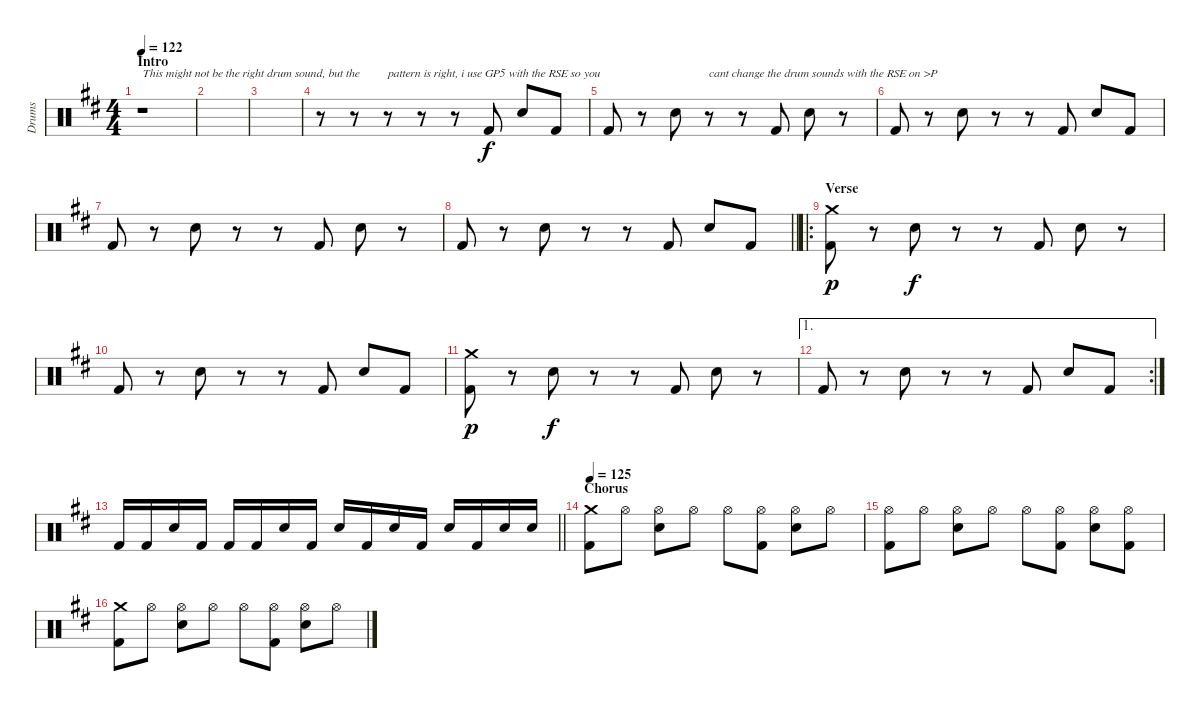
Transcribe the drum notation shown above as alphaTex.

\track ("Drums" "Drums") {instrument percussion}
\staff {score}
\articulation defaults
\ts (4 4)
\section ("" "Intro")
\tempo 122
\clef neutral
\ks d
r.1{txt "This might not be the right drum sound, but the" dy f} |
|
|
r.8 r.8 r.8{txt "pattern is right, i use GP5 with the RSE so you "} r.8 r.8 "Kick (hit) 2".8 "Snare (hit) 2".8 "Kick (hit) 2".8 |
"Kick (hit) 2".8 r.8 "Snare (hit) 2".8 r.8{txt "cant change the drum sounds with the RSE on >P"} r.8 "Kick (hit) 2".8 "Snare (hit) 2".8 r.8 |
"Kick (hit) 2".8 r.8 "Snare (hit) 2".8 r.8 r.8 "Kick (hit) 2".8 "Snare (hit) 2".8 "Kick (hit) 2".8 |
"Kick (hit) 2".8 r.8 "Snare (hit) 2".8 r.8 r.8 "Kick (hit) 2".8 "Snare (hit) 2".8 r.8 |
\barLineRight lightlight "Kick (hit) 2".8
r.8 "Snare (hit) 2".8 r.8 r.8 "Kick (hit) 2".8 "Snare (hit) 2".8 "Kick (hit) 2".8 |
\ro
\section ("" "Verse")
("Crash medium (hit)" "Kick (hit) 2").8{dy p} r.8 "Snare (hit) 2".8{dy f} r.8 r.8 "Kick (hit) 2".8 "Snare (hit) 2".8 r.8 |
"Kick (hit) 2".8 r.8 "Snare (hit) 2".8 r.8 r.8 "Kick (hit) 2".8 "Snare (hit) 2".8 "Kick (hit) 2".8 |
("Crash medium (hit)" "Kick (hit) 2").8{dy p} r.8 "Snare (hit) 2".8{dy f} r.8 r.8 "Kick (hit) 2".8 "Snare (hit) 2".8 r.8 |
\ae 1
\rc 2 "Kick (hit) 2".8
r.8 "Snare (hit) 2".8 r.8 r.8 "Kick (hit) 2".8 "Snare (hit) 2".8 "Kick (hit) 2".8 |
\barLineRight lightlight "Kick (hit) 2".16 "Kick (hit) 2".16 "Snare (hit) 2".16 "Kick (hit) 2".16 "Kick (hit) 2".16 "Kick (hit) 2".16 "Snare (hit) 2".16 "Kick (hit) 2".16 "Snare (hit) 2".16 "Kick (hit) 2".16 "Snare (hit) 2".16 "Kick (hit) 2".16 "Snare (hit) 2".16 "Kick (hit) 2".16 "Snare (hit) 2".16 "Snare (hit) 2".16
|
\section ("" "Chorus")
\tempo 125
("Crash medium (hit)" "Kick (hit) 2").8 "Hi-Hat (open)".8 ("Hi-Hat (open)" "Snare (hit) 2").8 "Hi-Hat (open)".8 "Hi-Hat (open)".8 ("Hi-Hat (open)" "Kick (hit) 2").8 ("Hi-Hat (open)" "Snare (hit) 2").8 "Hi-Hat (open)".8 |
("Hi-Hat (open)" "Kick (hit) 2").8 "Hi-Hat (open)".8 ("Hi-Hat (open)" "Snare (hit) 2").8 "Hi-Hat (open)".8 "Hi-Hat (open)".8 ("Hi-Hat (open)" "Kick (hit) 2").8 ("Hi-Hat (open)" "Snare (hit) 2").8 ("Hi-Hat (open)" "Kick (hit) 2").8 |
("Crash medium (hit)" "Kick (hit) 2").8 "Hi-Hat (open)".8 ("Hi-Hat (open)" "Snare (hit) 2").8 "Hi-Hat (open)".8 "Hi-Hat (open)".8 ("Hi-Hat (open)" "Kick (hit) 2").8 ("Hi-Hat (open)" "Snare (hit) 2").8 "Hi-Hat (open)".8
